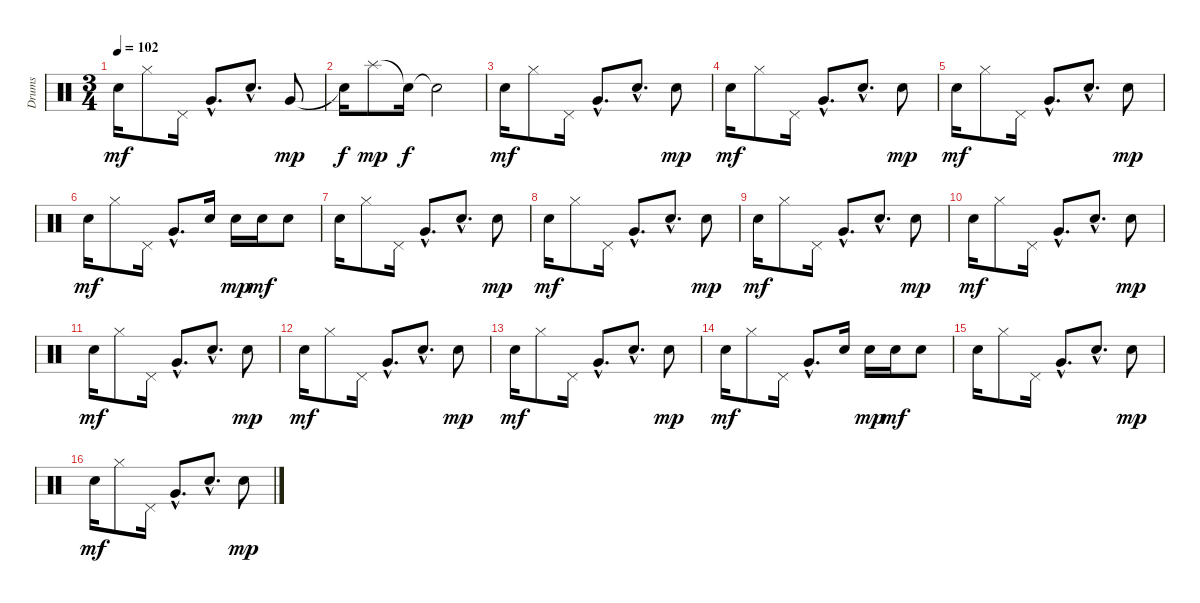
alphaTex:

\track ("Drums" "Drums") {instrument percussion}
\staff {score}
\articulation defaults
\ts (3 4)
\tempo 102
\clef neutral
\ks c "Electric Snare (hit)".16{dy mf volume 16} "Hi-Hat (closed)".8 "Pedal Hi-Hat (hit)".16 "Very Low Tom (hit)"{hac}.8{d} "Electric Snare (hit)"{hac}.8{d} "Very Low Tom (hit)".8{dy mp}
|
"Snare (hit)"{t}.16{dy f} "Splash (hit)".8{dy mp} "Snare (hit)"{t}.16{dy f} "Snare (hit)"{t}.2 |
"Electric Snare (hit)".16{dy mf volume 16} "Hi-Hat (closed)".8 "Pedal Hi-Hat (hit)".16 "Very Low Tom (hit)"{hac}.8{d} "Electric Snare (hit)"{hac}.8{d} "Electric Snare (hit)".8{dy mp} |
"Electric Snare (hit)".16{dy mf} "Hi-Hat (closed)".8 "Pedal Hi-Hat (hit)".16 "Very Low Tom (hit)"{hac}.8{d} "Electric Snare (hit)"{hac}.8{d} "Electric Snare (hit)".8{dy mp} |
"Electric Snare (hit)".16{dy mf} "Hi-Hat (closed)".8 "Pedal Hi-Hat (hit)".16 "Very Low Tom (hit)"{hac}.8{d} "Electric Snare (hit)"{hac}.8{d} "Electric Snare (hit)".8{dy mp} |
"Electric Snare (hit)".16{dy mf} "Hi-Hat (closed)".8 "Pedal Hi-Hat (hit)".16 "Very Low Tom (hit)"{hac}.8{d} "Electric Snare (hit)".16 "Electric Snare (hit)".16{dy mp} "Electric Snare (hit)".16{dy mf} "Electric Snare (hit)".8 |
"Electric Snare (hit)".16 "Hi-Hat (closed)".8 "Pedal Hi-Hat (hit)".16 "Very Low Tom (hit)"{hac}.8{d} "Electric Snare (hit)"{hac}.8{d} "Electric Snare (hit)".8{dy mp} |
"Electric Snare (hit)".16{dy mf} "Hi-Hat (closed)".8 "Pedal Hi-Hat (hit)".16 "Very Low Tom (hit)"{hac}.8{d} "Electric Snare (hit)"{hac}.8{d} "Electric Snare (hit)".8{dy mp} |
"Electric Snare (hit)".16{dy mf} "Hi-Hat (closed)".8 "Pedal Hi-Hat (hit)".16 "Very Low Tom (hit)"{hac}.8{d} "Electric Snare (hit)"{hac}.8{d} "Electric Snare (hit)".8{dy mp} |
"Electric Snare (hit)".16{dy mf} "Hi-Hat (closed)".8 "Pedal Hi-Hat (hit)".16 "Very Low Tom (hit)"{hac}.8{d} "Electric Snare (hit)"{hac}.8{d} "Electric Snare (hit)".8{dy mp} |
"Electric Snare (hit)".16{dy mf volume 16} "Hi-Hat (closed)".8 "Pedal Hi-Hat (hit)".16 "Very Low Tom (hit)"{hac}.8{d} "Electric Snare (hit)"{hac}.8{d} "Electric Snare (hit)".8{dy mp} |
"Electric Snare (hit)".16{dy mf} "Hi-Hat (closed)".8 "Pedal Hi-Hat (hit)".16 "Very Low Tom (hit)"{hac}.8{d} "Electric Snare (hit)"{hac}.8{d} "Electric Snare (hit)".8{dy mp} |
"Electric Snare (hit)".16{dy mf} "Hi-Hat (closed)".8 "Pedal Hi-Hat (hit)".16 "Very Low Tom (hit)"{hac}.8{d} "Electric Snare (hit)"{hac}.8{d} "Electric Snare (hit)".8{dy mp} |
"Electric Snare (hit)".16{dy mf} "Hi-Hat (closed)".8 "Pedal Hi-Hat (hit)".16 "Very Low Tom (hit)"{hac}.8{d} "Electric Snare (hit)".16 "Electric Snare (hit)".16{dy mp} "Electric Snare (hit)".16{dy mf} "Electric Snare (hit)".8 |
"Electric Snare (hit)".16 "Hi-Hat (closed)".8 "Pedal Hi-Hat (hit)".16 "Very Low Tom (hit)"{hac}.8{d} "Electric Snare (hit)"{hac}.8{d} "Electric Snare (hit)".8{dy mp} |
"Electric Snare (hit)".16{dy mf} "Hi-Hat (closed)".8 "Pedal Hi-Hat (hit)".16 "Very Low Tom (hit)"{hac}.8{d} "Electric Snare (hit)"{hac}.8{d} "Electric Snare (hit)".8{dy mp}
